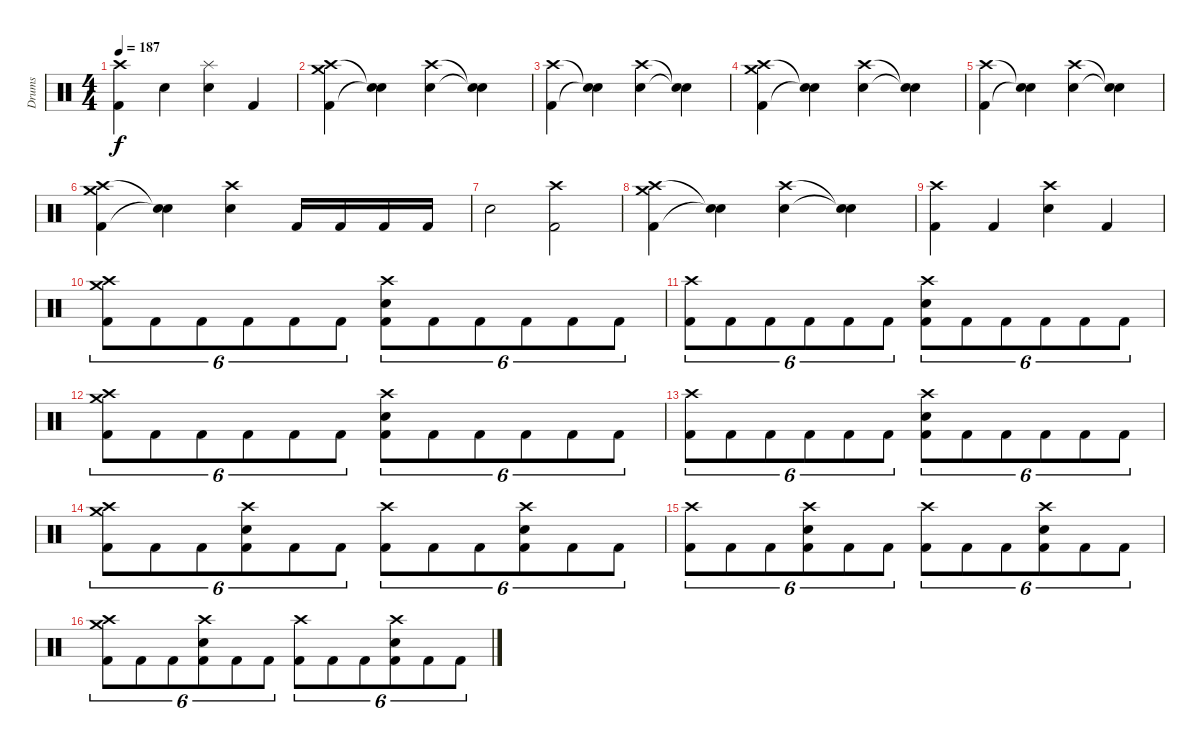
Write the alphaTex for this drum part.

\track ("Drums" "Drums") {instrument percussion}
\staff {score}
\articulation defaults
\ts (4 4)
\tempo 187
\clef neutral
\ks c
("Crash high (hit)" "Kick (hit) 2").4{dy f} "Snare (hit) 2".4 ("Splash (hit)" "Snare (hit) 2").4 "Kick (hit) 2".4 |
("Crash high (hit)" "Kick (hit) 2" "Crash medium (hit)").4 ("Snare (hit)"{t} "Snare (hit)"{t}).4 ("Crash high (hit)" "Snare (hit) 2").4 ("Snare (hit)"{t} "Snare (hit)"{t}).4 |
("Crash high (hit)" "Kick (hit) 2").4 ("Snare (hit)"{t} "Snare (hit)"{t}).4 ("Crash high (hit)" "Snare (hit) 2").4 ("Snare (hit)"{t} "Snare (hit)"{t}).4 |
("Crash high (hit)" "Kick (hit) 2" "Crash medium (hit)").4 ("Snare (hit)"{t} "Snare (hit)"{t}).4 ("Crash high (hit)" "Snare (hit) 2").4 ("Snare (hit)"{t} "Snare (hit)"{t}).4 |
("Crash high (hit)" "Kick (hit) 2").4 ("Snare (hit)"{t} "Snare (hit)"{t}).4 ("Crash high (hit)" "Snare (hit) 2").4 ("Snare (hit)"{t} "Snare (hit)"{t}).4 |
("Crash high (hit)" "Kick (hit) 2" "Crash medium (hit)").4 ("Snare (hit)"{t} "Snare (hit)"{t}).4 ("Crash high (hit)" "Snare (hit) 2").4 "Kick (hit) 2".16 "Kick (hit) 2".16 "Kick (hit) 2".16 "Kick (hit) 2".16 |
"Snare (hit) 2".2 ("Crash high (hit)" "Kick (hit) 2").2 |
("Crash high (hit)" "Kick (hit) 2" "Crash medium (hit)").4 ("Snare (hit)"{t} "Snare (hit)"{t}).4 ("Crash high (hit)" "Snare (hit) 2").4 ("Snare (hit)"{t} "Snare (hit)"{t}).4 |
("Crash high (hit)" "Kick (hit) 2").4 "Kick (hit) 2".4 ("Crash high (hit)" "Snare (hit) 2").4 "Kick (hit) 2".4 |
("Crash high (hit)" "Crash medium (hit)" "Kick (hit) 2").8{tu (6 4)} "Kick (hit) 2".8{tu (6 4)} "Kick (hit) 2".8{tu (6 4)} "Kick (hit) 2".8{tu (6 4)} "Kick (hit) 2".8{tu (6 4)} "Kick (hit) 2".8{tu (6 4)} ("Crash high (hit)" "Snare (hit) 2" "Kick (hit) 2").8{tu (6 4)} "Kick (hit) 2".8{tu (6 4)} "Kick (hit) 2".8{tu (6 4)} "Kick (hit) 2".8{tu (6 4)} "Kick (hit) 2".8{tu (6 4)} "Kick (hit) 2".8{tu (6 4)} |
("Crash high (hit)" "Kick (hit) 2").8{tu (6 4)} "Kick (hit) 2".8{tu (6 4)} "Kick (hit) 2".8{tu (6 4)} "Kick (hit) 2".8{tu (6 4)} "Kick (hit) 2".8{tu (6 4)} "Kick (hit) 2".8{tu (6 4)} ("Crash high (hit)" "Snare (hit) 2" "Kick (hit) 2").8{tu (6 4)} "Kick (hit) 2".8{tu (6 4)} "Kick (hit) 2".8{tu (6 4)} "Kick (hit) 2".8{tu (6 4)} "Kick (hit) 2".8{tu (6 4)} "Kick (hit) 2".8{tu (6 4)} |
("Crash high (hit)" "Crash medium (hit)" "Kick (hit) 2").8{tu (6 4)} "Kick (hit) 2".8{tu (6 4)} "Kick (hit) 2".8{tu (6 4)} "Kick (hit) 2".8{tu (6 4)} "Kick (hit) 2".8{tu (6 4)} "Kick (hit) 2".8{tu (6 4)} ("Crash high (hit)" "Snare (hit) 2" "Kick (hit) 2").8{tu (6 4)} "Kick (hit) 2".8{tu (6 4)} "Kick (hit) 2".8{tu (6 4)} "Kick (hit) 2".8{tu (6 4)} "Kick (hit) 2".8{tu (6 4)} "Kick (hit) 2".8{tu (6 4)} |
("Crash high (hit)" "Kick (hit) 2").8{tu (6 4)} "Kick (hit) 2".8{tu (6 4)} "Kick (hit) 2".8{tu (6 4)} "Kick (hit) 2".8{tu (6 4)} "Kick (hit) 2".8{tu (6 4)} "Kick (hit) 2".8{tu (6 4)} ("Crash high (hit)" "Snare (hit) 2" "Kick (hit) 2").8{tu (6 4)} "Kick (hit) 2".8{tu (6 4)} "Kick (hit) 2".8{tu (6 4)} "Kick (hit) 2".8{tu (6 4)} "Kick (hit) 2".8{tu (6 4)} "Kick (hit) 2".8{tu (6 4)} |
("Crash high (hit)" "Crash medium (hit)" "Kick (hit) 2").8{tu (6 4)} "Kick (hit) 2".8{tu (6 4)} "Kick (hit) 2".8{tu (6 4)} ("Snare (hit) 2" "Crash high (hit)" "Kick (hit) 2").8{tu (6 4)} "Kick (hit) 2".8{tu (6 4)} "Kick (hit) 2".8{tu (6 4)} ("Crash high (hit)" "Kick (hit) 2").8{tu (6 4)} "Kick (hit) 2".8{tu (6 4)} "Kick (hit) 2".8{tu (6 4)} ("Snare (hit) 2" "Crash high (hit)" "Kick (hit) 2").8{tu (6 4)} "Kick (hit) 2".8{tu (6 4)} "Kick (hit) 2".8{tu (6 4)} |
("Crash high (hit)" "Kick (hit) 2").8{tu (6 4)} "Kick (hit) 2".8{tu (6 4)} "Kick (hit) 2".8{tu (6 4)} ("Snare (hit) 2" "Crash high (hit)" "Kick (hit) 2").8{tu (6 4)} "Kick (hit) 2".8{tu (6 4)} "Kick (hit) 2".8{tu (6 4)} ("Crash high (hit)" "Kick (hit) 2").8{tu (6 4)} "Kick (hit) 2".8{tu (6 4)} "Kick (hit) 2".8{tu (6 4)} ("Snare (hit) 2" "Crash high (hit)" "Kick (hit) 2").8{tu (6 4)} "Kick (hit) 2".8{tu (6 4)} "Kick (hit) 2".8{tu (6 4)} |
("Crash high (hit)" "Crash medium (hit)" "Kick (hit) 2").8{tu (6 4)} "Kick (hit) 2".8{tu (6 4)} "Kick (hit) 2".8{tu (6 4)} ("Snare (hit) 2" "Crash high (hit)" "Kick (hit) 2").8{tu (6 4)} "Kick (hit) 2".8{tu (6 4)} "Kick (hit) 2".8{tu (6 4)} ("Crash high (hit)" "Kick (hit) 2").8{tu (6 4)} "Kick (hit) 2".8{tu (6 4)} "Kick (hit) 2".8{tu (6 4)} ("Snare (hit) 2" "Crash high (hit)" "Kick (hit) 2").8{tu (6 4)} "Kick (hit) 2".8{tu (6 4)} "Kick (hit) 2".8{tu (6 4)}
